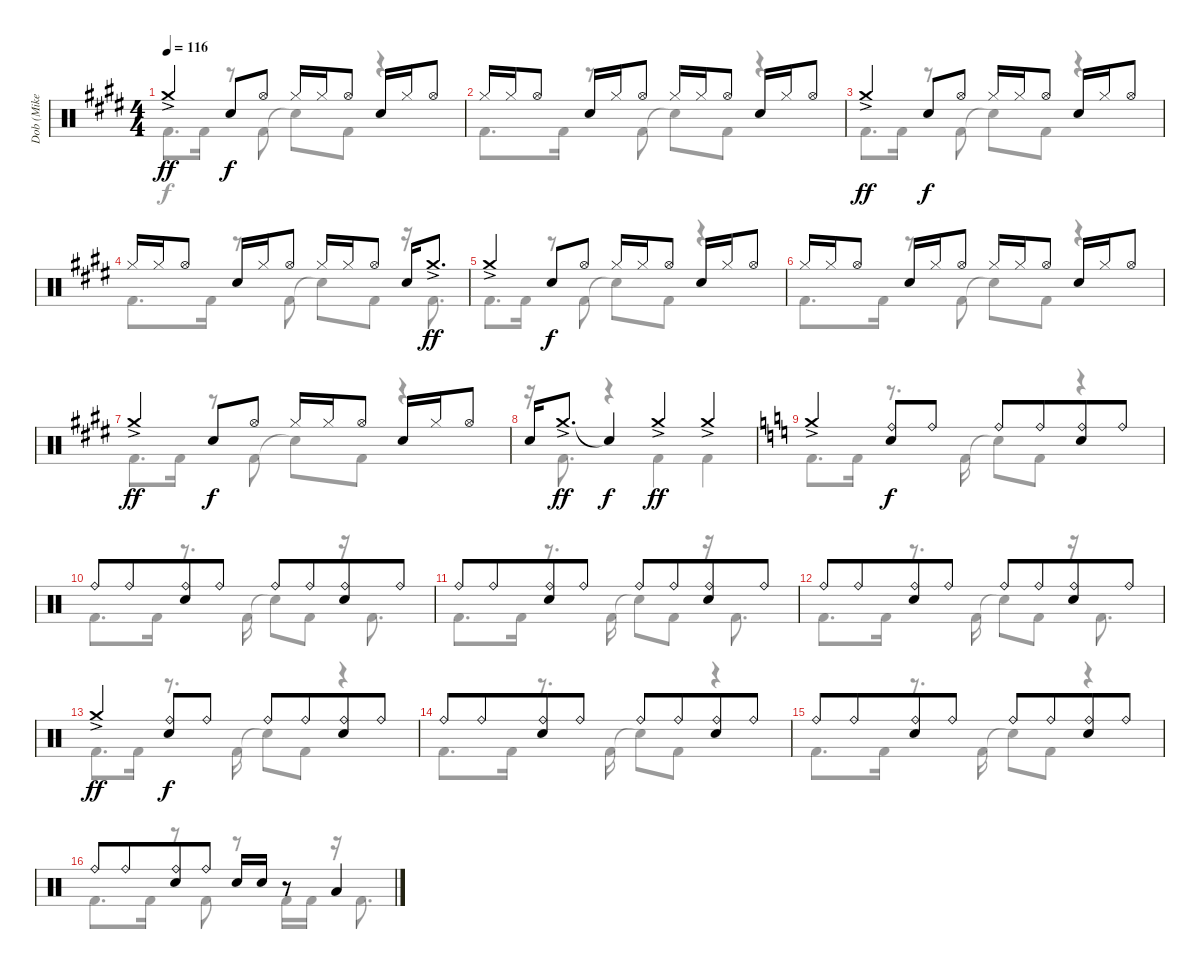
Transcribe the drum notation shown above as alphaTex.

\track ("Dob (Mike Terrana)" "Dob (Mike ") {instrument percussion}
\staff {score}
\articulation defaults
\voice
\ts (4 4)
\tempo 116
\clef neutral
\ks e "Crash medium (hit)"{ac}.4{dy ff} "Electric Snare (hit)".8{dy f} "Hi-Hat (open)".8 "Hi-Hat (closed)".16 "Hi-Hat (closed)".16 "Hi-Hat (open)".8 "Electric Snare (hit)".16 "Hi-Hat (closed)".16 "Hi-Hat (open)".8
|
"Hi-Hat (closed)".16 "Hi-Hat (closed)".16 "Hi-Hat (open)".8 "Electric Snare (hit)".16 "Hi-Hat (closed)".16 "Hi-Hat (open)".8 "Hi-Hat (closed)".16 "Hi-Hat (closed)".16 "Hi-Hat (open)".8 "Electric Snare (hit)".16 "Hi-Hat (closed)".16 "Hi-Hat (open)".8 |
"Crash medium (hit)"{ac}.4{dy ff} "Electric Snare (hit)".8{dy f} "Hi-Hat (open)".8 "Hi-Hat (closed)".16 "Hi-Hat (closed)".16 "Hi-Hat (open)".8 "Electric Snare (hit)".16 "Hi-Hat (closed)".16 "Hi-Hat (open)".8 |
"Hi-Hat (closed)".16 "Hi-Hat (closed)".16 "Hi-Hat (open)".8 "Electric Snare (hit)".16 "Hi-Hat (closed)".16 "Hi-Hat (open)".8 "Hi-Hat (closed)".16 "Hi-Hat (closed)".16 "Hi-Hat (open)".8 "Electric Snare (hit)".16 "Crash medium (hit)"{ac}.8{d dy ff} |
"Crash medium (hit)"{ac}.4 "Electric Snare (hit)".8{dy f} "Hi-Hat (open)".8 "Hi-Hat (closed)".16 "Hi-Hat (closed)".16 "Hi-Hat (open)".8 "Electric Snare (hit)".16 "Hi-Hat (closed)".16 "Hi-Hat (open)".8 |
"Hi-Hat (closed)".16 "Hi-Hat (closed)".16 "Hi-Hat (open)".8 "Electric Snare (hit)".16 "Hi-Hat (closed)".16 "Hi-Hat (open)".8 "Hi-Hat (closed)".16 "Hi-Hat (closed)".16 "Hi-Hat (open)".8 "Electric Snare (hit)".16 "Hi-Hat (closed)".16 "Hi-Hat (open)".8 |
"Crash medium (hit)"{ac}.4{dy ff} "Electric Snare (hit)".8{dy f} "Hi-Hat (open)".8 "Hi-Hat (closed)".16 "Hi-Hat (closed)".16 "Hi-Hat (open)".8 "Electric Snare (hit)".16 "Hi-Hat (closed)".16 "Hi-Hat (open)".8 |
"Electric Snare (hit)".16 "Crash medium (hit)"{ac}.8{d dy ff} "Snare (hit)"{t}.4{dy f} "Crash medium (hit)"{ac}.4{dy ff} "Crash medium (hit)"{ac}.4 |
\ks c "Crash medium (hit)"{ac}.4
("Ride (bell)" "Electric Snare (hit)").8{dy f} "Ride (bell)".8 "Ride (bell)".8 "Ride (bell)".8{beam merge} ("Ride (bell)" "Electric Snare (hit)").8 "Ride (bell)".8 |
"Ride (bell)".8 "Ride (bell)".8{beam merge} ("Ride (bell)" "Electric Snare (hit)").8 "Ride (bell)".8 "Ride (bell)".8 "Ride (bell)".8{beam merge} ("Ride (bell)" "Electric Snare (hit)").8 "Ride (bell)".8 |
"Ride (bell)".8 "Ride (bell)".8{beam merge} ("Ride (bell)" "Electric Snare (hit)").8 "Ride (bell)".8 "Ride (bell)".8 "Ride (bell)".8{beam merge} ("Ride (bell)" "Electric Snare (hit)").8 "Ride (bell)".8 |
"Ride (bell)".8 "Ride (bell)".8{beam merge} ("Ride (bell)" "Electric Snare (hit)").8 "Ride (bell)".8 "Ride (bell)".8 "Ride (bell)".8{beam merge} ("Ride (bell)" "Electric Snare (hit)").8 "Ride (bell)".8 |
"Crash medium (hit)"{ac}.4{dy ff} ("Ride (bell)" "Electric Snare (hit)").8{dy f} "Ride (bell)".8 "Ride (bell)".8 "Ride (bell)".8{beam merge} ("Ride (bell)" "Electric Snare (hit)").8 "Ride (bell)".8 |
"Ride (bell)".8 "Ride (bell)".8{beam merge} ("Ride (bell)" "Electric Snare (hit)").8 "Ride (bell)".8 "Ride (bell)".8 "Ride (bell)".8{beam merge} ("Ride (bell)" "Electric Snare (hit)").8 "Ride (bell)".8 |
"Ride (bell)".8 "Ride (bell)".8{beam merge} ("Ride (bell)" "Electric Snare (hit)").8 "Ride (bell)".8 "Ride (bell)".8 "Ride (bell)".8{beam merge} ("Ride (bell)" "Electric Snare (hit)").8 "Ride (bell)".8 |
"Ride (bell)".8 "Ride (bell)".8{beam merge} ("Ride (bell)" "Electric Snare (hit)").8 "Ride (bell)".8 "Electric Snare (hit)".16 "Electric Snare (hit)".16 r.8 "Low Tom (hit)".4
\voice
\clef neutral
\ottava regular
\simile none
\ks e "Kick (hit) 2".8{d dy f} "Kick (hit) 2".16
r.8 "Kick (hit) 2".8 "Snare (hit)"{t}.8 "Kick (hit) 2".8 r.4 |
"Kick (hit) 2".8{d} "Kick (hit) 2".16 r.8 "Kick (hit) 2".8 "Snare (hit)"{t}.8 "Kick (hit) 2".8 r.4 |
"Kick (hit) 2".8{d} "Kick (hit) 2".16 r.8 "Kick (hit) 2".8 "Snare (hit)"{t}.8 "Kick (hit) 2".8 r.4 |
"Kick (hit) 2".8{d} "Kick (hit) 2".16 r.8 "Kick (hit) 2".8 "Snare (hit)"{t}.8 "Kick (hit) 2".8 r.16 "Kick (hit) 2".8{d} |
"Kick (hit) 2".8{d} "Kick (hit) 2".16 r.8 "Kick (hit) 2".8 "Snare (hit)"{t}.8 "Kick (hit) 2".8 r.4 |
"Kick (hit) 2".8{d} "Kick (hit) 2".16 r.8 "Kick (hit) 2".8 "Snare (hit)"{t}.8 "Kick (hit) 2".8 r.4 |
"Kick (hit) 2".8{d} "Kick (hit) 2".16 r.8 "Kick (hit) 2".8 "Snare (hit)"{t}.8 "Kick (hit) 2".8 r.4 |
r.16 "Kick (hit) 2".8{d} r.4 "Kick (hit) 2".4 "Kick (hit) 2".4 |
\ks c "Kick (hit) 2".8{d} "Kick (hit) 2".16
r.8{d} "Kick (hit) 2".16 "Snare (hit)"{t}.8 "Kick (hit) 2".8 r.4 |
"Kick (hit) 2".8{d} "Kick (hit) 2".16 r.8{d} "Kick (hit) 2".16 "Snare (hit)"{t}.8 "Kick (hit) 2".8 r.16 "Kick (hit) 2".8{d} |
"Kick (hit) 2".8{d} "Kick (hit) 2".16 r.8{d} "Kick (hit) 2".16 "Snare (hit)"{t}.8 "Kick (hit) 2".8 r.16 "Kick (hit) 2".8{d} |
"Kick (hit) 2".8{d} "Kick (hit) 2".16 r.8{d} "Kick (hit) 2".16 "Snare (hit)"{t}.8 "Kick (hit) 2".8 r.16 "Kick (hit) 2".8{d} |
"Kick (hit) 2".8{d} "Kick (hit) 2".16 r.8{d} "Kick (hit) 2".16 "Snare (hit)"{t}.8 "Kick (hit) 2".8 r.4 |
"Kick (hit) 2".8{d} "Kick (hit) 2".16 r.8{d} "Kick (hit) 2".16 "Snare (hit)"{t}.8 "Kick (hit) 2".8 r.4 |
"Kick (hit) 2".8{d} "Kick (hit) 2".16 r.8{d} "Kick (hit) 2".16 "Snare (hit)"{t}.8 "Kick (hit) 2".8 r.4 |
"Kick (hit) 2".8{d} "Kick (hit) 2".16 r.8 "Kick (hit) 2".8 r.8 "Kick (hit) 2".16 "Kick (hit) 2".16 r.16 "Kick (hit) 2".8{d}
